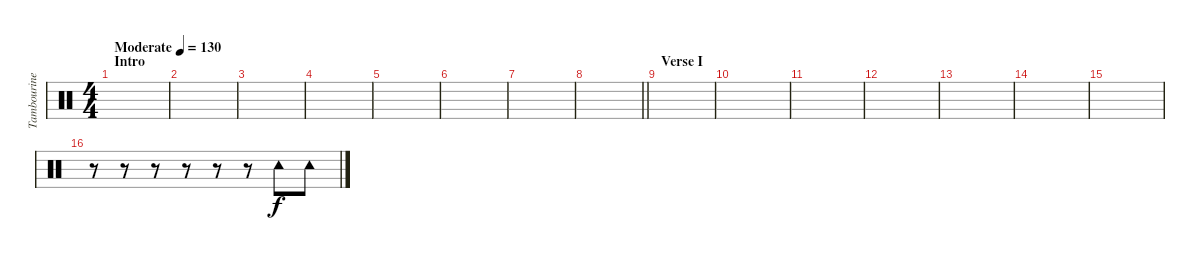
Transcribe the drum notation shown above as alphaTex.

\track ("Tambourine" "Tambourine") {instrument percussion}
\staff {score}
\articulation defaults
\ts (4 4)
\section ("" "Intro")
\tempo (130 "Moderate")
\clef neutral
\ks c
|
|
|
|
|
|
|
\barLineRight lightlight
|
\section ("" "Verse I")
|
|
|
|
|
|
|
r.8 r.8 r.8 r.8 r.8 r.8 "Tambourine (hit)".8 "Tambourine (hit)".8
